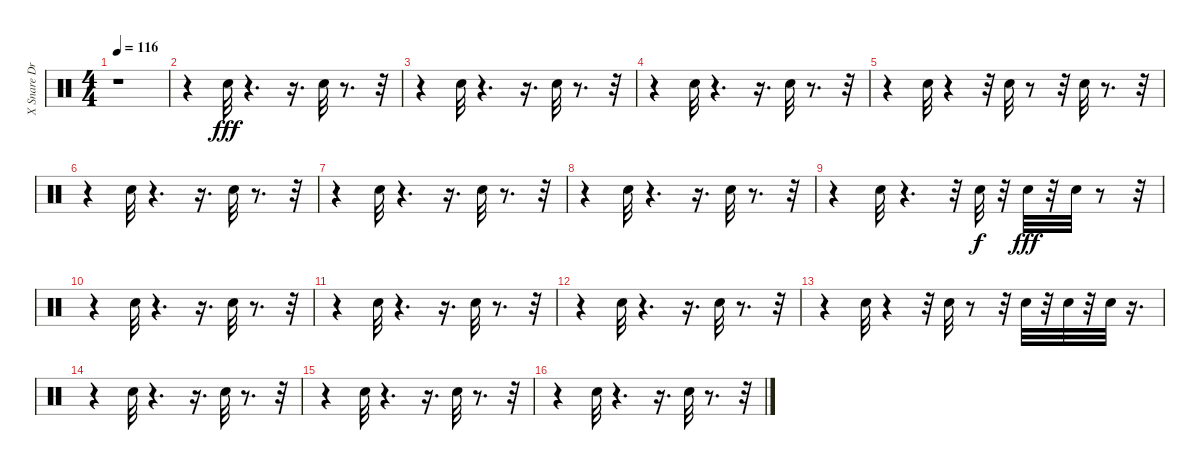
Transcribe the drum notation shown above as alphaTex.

\track ("X Snare Drum        " "X Snare Dr") {instrument percussion}
\staff {score}
\articulation defaults
\ts (4 4)
\tempo 116
\clef neutral
\ks c
r.1{dy fff} |
r.4 "Snare (hit) 2".32 r.4{d} r.16{d} "Snare (hit) 2".32 r.8{d} r.32 |
r.4 "Snare (hit) 2".32 r.4{d} r.16{d} "Snare (hit) 2".32 r.8{d} r.32 |
r.4 "Snare (hit) 2".32 r.4{d} r.16{d} "Snare (hit) 2".32 r.8{d} r.32 |
r.4 "Snare (hit) 2".32 r.4 r.32 "Snare (hit) 2".32 r.8 r.32 "Snare (hit) 2".32 r.8{d} r.32 |
r.4 "Snare (hit) 2".32 r.4{d} r.16{d} "Snare (hit) 2".32 r.8{d} r.32 |
r.4 "Snare (hit) 2".32 r.4{d} r.16{d} "Snare (hit) 2".32 r.8{d} r.32 |
r.4 "Snare (hit) 2".32 r.4{d} r.16{d} "Snare (hit) 2".32 r.8{d} r.32 |
r.4 "Snare (hit) 2".32 r.4{d} r.32 "Snare (hit) 2".32{dy f} r.32 "Snare (hit) 2".32{dy fff} r.32 "Snare (hit) 2".32 r.8 r.32 |
r.4 "Snare (hit) 2".32 r.4{d} r.16{d} "Snare (hit) 2".32 r.8{d} r.32 |
r.4 "Snare (hit) 2".32 r.4{d} r.16{d} "Snare (hit) 2".32 r.8{d} r.32 |
r.4 "Snare (hit) 2".32 r.4{d} r.16{d} "Snare (hit) 2".32 r.8{d} r.32 |
r.4 "Snare (hit) 2".32 r.4 r.32 "Snare (hit) 2".32 r.8 r.32 "Snare (hit) 2".32 r.32 "Snare (hit) 2".32 r.32 "Snare (hit) 2".32 r.16{d} |
r.4 "Snare (hit) 2".32 r.4{d} r.16{d} "Snare (hit) 2".32 r.8{d} r.32 |
r.4 "Snare (hit) 2".32 r.4{d} r.16{d} "Snare (hit) 2".32 r.8{d} r.32 |
r.4 "Snare (hit) 2".32 r.4{d} r.16{d} "Snare (hit) 2".32 r.8{d} r.32
